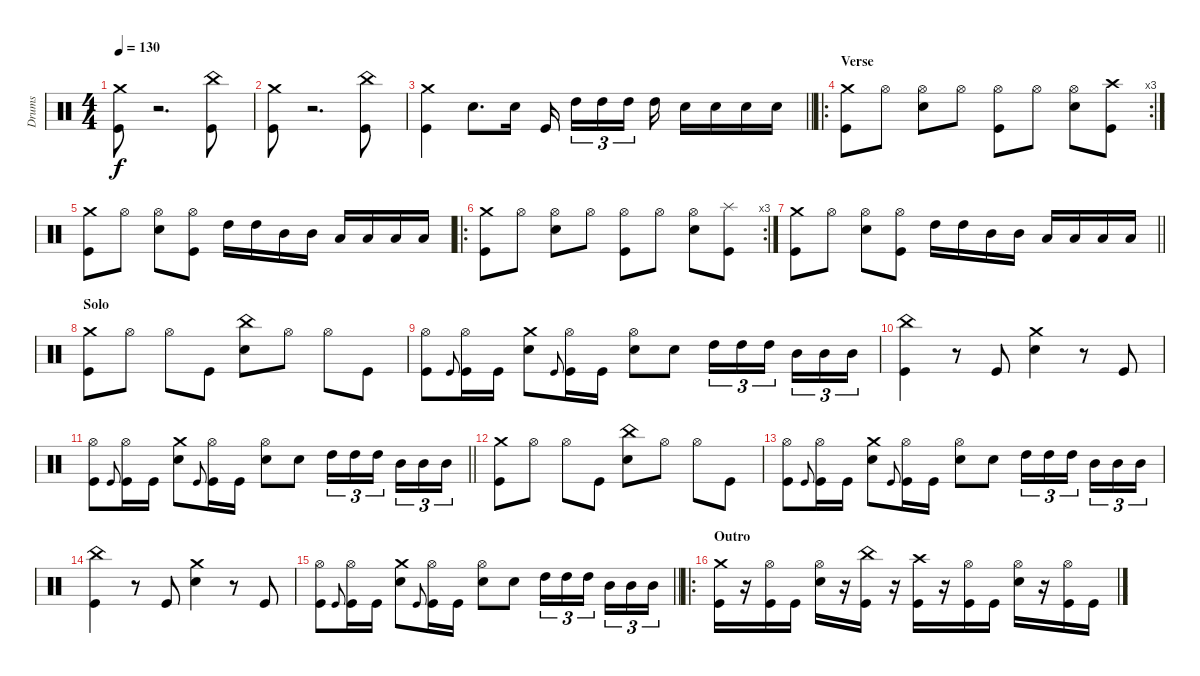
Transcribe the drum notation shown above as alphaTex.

\track ("Drums" "Drums") {instrument percussion}
\staff {score}
\articulation defaults
\ts (4 4)
\tempo 130
\clef neutral
\ks aminor
("Crash medium (hit)" "Kick (hit)").8{dy f} r.2{d} ("China (hit)" "Kick (hit)").8 |
("Crash medium (hit)" "Kick (hit)").8 r.2{d} ("China (hit)" "Kick (hit)").8 |
\barLineRight lightlight
("Crash medium (hit)" "Kick (hit)").4 "Electric Snare (hit)".8{d} "Electric Snare (hit)".16 "Kick (hit)".16{beam splitsecondary} "High Tom (hit)".16{tu (3 2)} "High Tom (hit)".16{tu (3 2)} "High Tom (hit)".16{tu (3 2) beam splitsecondary} "High Tom (hit)".16 "Electric Snare (hit)".16 "Electric Snare (hit)".16 "Electric Snare (hit)".16 "Electric Snare (hit)".16 |
\ro
\rc 3
\section ("" "Verse")
("Crash medium (hit)" "Kick (hit)").8 "Hi-Hat (open)".8 ("Hi-Hat (open)" "Electric Snare (hit)").8 "Hi-Hat (open)".8 ("Hi-Hat (open)" "Kick (hit)").8 "Hi-Hat (open)".8 ("Hi-Hat (open)" "Electric Snare (hit)").8 ("Crash high (hit)" "Kick (hit)").8 |
("Crash medium (hit)" "Kick (hit)").8 "Hi-Hat (open)".8 ("Hi-Hat (open)" "Electric Snare (hit)").8 ("Hi-Hat (open)" "Kick (hit)").8 "High Tom (hit)".16 "High Tom (hit)".16 "Mid Tom (hit)".16 "Mid Tom (hit)".16 "Low Tom (hit)".16 "Low Tom (hit)".16 "Low Floor Tom (hit)".16 "Low Floor Tom (hit)".16 |
\ro
\rc 3
("Crash medium (hit)" "Kick (hit)").8 "Hi-Hat (open)".8 ("Hi-Hat (open)" "Electric Snare (hit)").8 "Hi-Hat (open)".8 ("Hi-Hat (open)" "Kick (hit)").8 "Hi-Hat (open)".8 ("Hi-Hat (open)" "Electric Snare (hit)").8 ("Splash (hit)" "Kick (hit)").8 |
\barLineRight lightlight
("Crash medium (hit)" "Kick (hit)").8 "Hi-Hat (open)".8 ("Hi-Hat (open)" "Electric Snare (hit)").8 ("Hi-Hat (open)" "Kick (hit)").8 "High Tom (hit)".16 "High Tom (hit)".16 "Mid Tom (hit)".16 "Mid Tom (hit)".16 "Low Tom (hit)".16 "Low Tom (hit)".16 "Low Floor Tom (hit)".16 "Low Floor Tom (hit)".16 |
\section ("" "Solo")
("Crash medium (hit)" "Kick (hit)").8 "Hi-Hat (open)".8 "Hi-Hat (open)".8 "Kick (hit)".8 ("China (hit)" "Electric Snare (hit)").8 "Hi-Hat (open)".8 "Hi-Hat (open)".8 "Kick (hit)".8 |
("Hi-Hat (open)" "Kick (hit)").8 "Kick (hit)".8{gr onbeat} ("Hi-Hat (open)" "Kick (hit)").16 "Kick (hit)".16 ("Crash medium (hit)" "Electric Snare (hit)").8 "Kick (hit)".8{gr onbeat} ("Hi-Hat (open)" "Kick (hit)").16 "Kick (hit)".16 ("Hi-Hat (open)" "Electric Snare (hit)").8 "Electric Snare (hit)".8 "High Tom (hit)".16{tu (3 2)} "High Tom (hit)".16{tu (3 2)} "High Tom (hit)".16{tu (3 2) beam splitsecondary} "Mid Tom (hit)".16{tu (3 2)} "Mid Tom (hit)".16{tu (3 2)} "Mid Tom (hit)".16{tu (3 2)} |
("China (hit)" "Kick (hit)").4 r.8 "Kick (hit)".8 ("Crash medium (hit)" "Electric Snare (hit)").4 r.8 "Kick (hit)".8 |
\barLineRight lightlight
("Hi-Hat (open)" "Kick (hit)").8 "Kick (hit)".8{gr onbeat} ("Hi-Hat (open)" "Kick (hit)").16 "Kick (hit)".16 ("Crash medium (hit)" "Electric Snare (hit)").8 "Kick (hit)".8{gr onbeat} ("Hi-Hat (open)" "Kick (hit)").16 "Kick (hit)".16 ("Hi-Hat (open)" "Electric Snare (hit)").8 "Electric Snare (hit)".8 "High Tom (hit)".16{tu (3 2)} "High Tom (hit)".16{tu (3 2)} "High Tom (hit)".16{tu (3 2) beam splitsecondary} "Mid Tom (hit)".16{tu (3 2)} "Mid Tom (hit)".16{tu (3 2)} "Mid Tom (hit)".16{tu (3 2)} |
("Crash medium (hit)" "Kick (hit)").8 "Hi-Hat (open)".8 "Hi-Hat (open)".8 "Kick (hit)".8 ("China (hit)" "Electric Snare (hit)").8 "Hi-Hat (open)".8 "Hi-Hat (open)".8 "Kick (hit)".8 |
("Hi-Hat (open)" "Kick (hit)").8 "Kick (hit)".8{gr onbeat} ("Hi-Hat (open)" "Kick (hit)").16 "Kick (hit)".16 ("Crash medium (hit)" "Electric Snare (hit)").8 "Kick (hit)".8{gr onbeat} ("Hi-Hat (open)" "Kick (hit)").16 "Kick (hit)".16 ("Hi-Hat (open)" "Electric Snare (hit)").8 "Electric Snare (hit)".8 "High Tom (hit)".16{tu (3 2)} "High Tom (hit)".16{tu (3 2)} "High Tom (hit)".16{tu (3 2) beam splitsecondary} "Mid Tom (hit)".16{tu (3 2)} "Mid Tom (hit)".16{tu (3 2)} "Mid Tom (hit)".16{tu (3 2)} |
("China (hit)" "Kick (hit)").4 r.8 "Kick (hit)".8 ("Crash medium (hit)" "Electric Snare (hit)").4 r.8 "Kick (hit)".8 |
\barLineRight lightlight
("Hi-Hat (open)" "Kick (hit)").8 "Kick (hit)".8{gr onbeat} ("Hi-Hat (open)" "Kick (hit)").16 "Kick (hit)".16 ("Crash medium (hit)" "Electric Snare (hit)").8 "Kick (hit)".8{gr onbeat} ("Hi-Hat (open)" "Kick (hit)").16 "Kick (hit)".16 ("Hi-Hat (open)" "Electric Snare (hit)").8 "Electric Snare (hit)".8 "High Tom (hit)".16{tu (3 2)} "High Tom (hit)".16{tu (3 2)} "High Tom (hit)".16{tu (3 2) beam splitsecondary} "Mid Tom (hit)".16{tu (3 2)} "Mid Tom (hit)".16{tu (3 2)} "Mid Tom (hit)".16{tu (3 2)} |
\ro
\section ("" "Outro")
("Crash medium (hit)" "Kick (hit)").16 r.16 ("Hi-Hat (open)" "Kick (hit)").16 "Kick (hit)".16 ("Hi-Hat (open)" "Electric Snare (hit)").16 r.16 ("China (hit)" "Kick (hit)").16 r.16 ("Crash high (hit)" "Kick (hit)").16 r.16 ("Hi-Hat (open)" "Kick (hit)").16 "Kick (hit)".16 ("Hi-Hat (open)" "Electric Snare (hit)").16 r.16 ("Hi-Hat (open)" "Kick (hit)").16 "Kick (hit)".16
